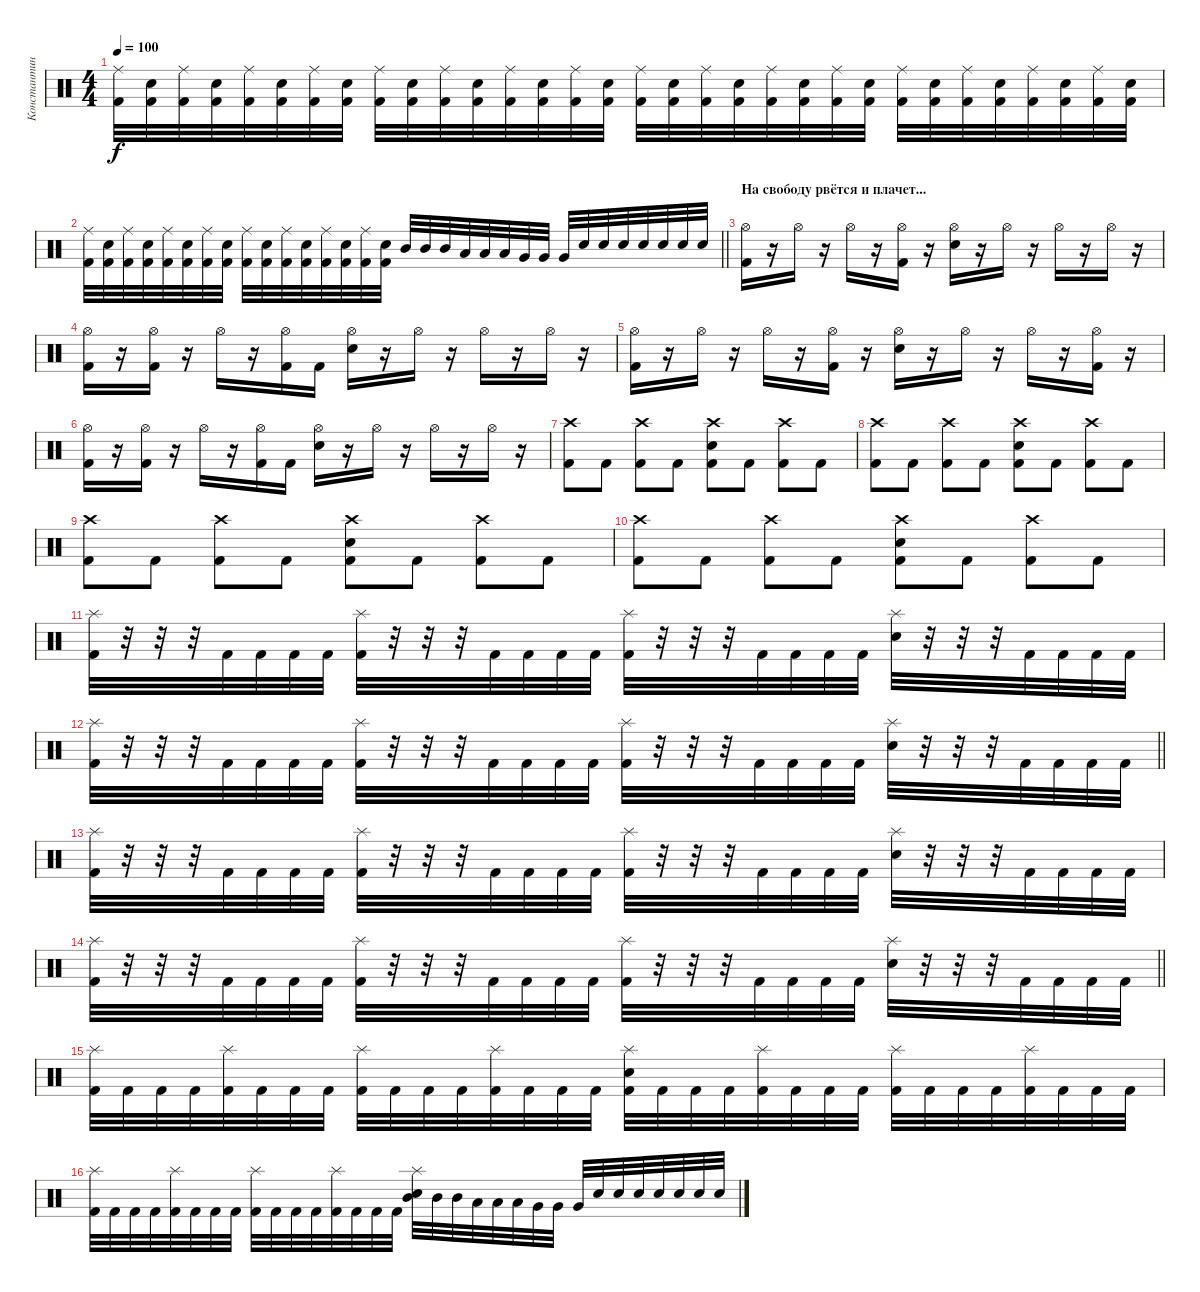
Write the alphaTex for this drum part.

\track ("Константин \"Салян\" Сальников" "Константин") {instrument percussion}
\staff {score}
\articulation defaults
\ts (4 4)
\tempo 100
\clef neutral
\ks c
("Ride (middle)" "Kick (hit) 2").32{dy f} ("Electric Snare (hit)" "Kick (hit) 2").32 ("Ride (middle)" "Kick (hit) 2").32 ("Electric Snare (hit)" "Kick (hit) 2").32 ("Ride (middle)" "Kick (hit) 2").32 ("Electric Snare (hit)" "Kick (hit) 2").32 ("Ride (middle)" "Kick (hit) 2").32 ("Electric Snare (hit)" "Kick (hit) 2").32 ("Ride (middle)" "Kick (hit) 2").32 ("Electric Snare (hit)" "Kick (hit) 2").32 ("Ride (middle)" "Kick (hit) 2").32 ("Electric Snare (hit)" "Kick (hit) 2").32 ("Ride (middle)" "Kick (hit) 2").32 ("Electric Snare (hit)" "Kick (hit) 2").32 ("Ride (middle)" "Kick (hit) 2").32 ("Electric Snare (hit)" "Kick (hit) 2").32 ("Ride (middle)" "Kick (hit) 2").32 ("Electric Snare (hit)" "Kick (hit) 2").32 ("Ride (middle)" "Kick (hit) 2").32 ("Electric Snare (hit)" "Kick (hit) 2").32 ("Ride (middle)" "Kick (hit) 2").32 ("Electric Snare (hit)" "Kick (hit) 2").32 ("Ride (middle)" "Kick (hit) 2").32 ("Electric Snare (hit)" "Kick (hit) 2").32 ("Ride (middle)" "Kick (hit) 2").32 ("Electric Snare (hit)" "Kick (hit) 2").32 ("Ride (middle)" "Kick (hit) 2").32 ("Electric Snare (hit)" "Kick (hit) 2").32 ("Ride (middle)" "Kick (hit) 2").32 ("Electric Snare (hit)" "Kick (hit) 2").32 ("Ride (middle)" "Kick (hit) 2").32 ("Electric Snare (hit)" "Kick (hit) 2").32 |
\barLineRight lightlight
("Ride (middle)" "Kick (hit) 2").32 ("Electric Snare (hit)" "Kick (hit) 2").32 ("Ride (middle)" "Kick (hit) 2").32 ("Electric Snare (hit)" "Kick (hit) 2").32 ("Ride (middle)" "Kick (hit) 2").32 ("Electric Snare (hit)" "Kick (hit) 2").32 ("Ride (middle)" "Kick (hit) 2").32 ("Electric Snare (hit)" "Kick (hit) 2").32 ("Ride (middle)" "Kick (hit) 2").32 ("Electric Snare (hit)" "Kick (hit) 2").32 ("Ride (middle)" "Kick (hit) 2").32 ("Electric Snare (hit)" "Kick (hit) 2").32 ("Ride (middle)" "Kick (hit) 2").32 ("Electric Snare (hit)" "Kick (hit) 2").32 ("Ride (middle)" "Kick (hit) 2").32 ("Electric Snare (hit)" "Kick (hit) 2").32 "Mid Tom (hit)".32 "Mid Tom (hit)".32 "Mid Tom (hit)".32 "Low Tom (hit)".32 "Low Tom (hit)".32 "Low Tom (hit)".32 "Very Low Tom (hit)".32 "Very Low Tom (hit)".32 "Very Low Tom (hit)".32 "Electric Snare (hit)".32 "Electric Snare (hit)".32 "Electric Snare (hit)".32 "Electric Snare (hit)".32 "Electric Snare (hit)".32 "Electric Snare (hit)".32 "Electric Snare (hit)".32 |
\section ("" "На свободу рвётся и плачет...")
("Hi-Hat (open)" "Kick (hit) 2").16 r.16 "Hi-Hat (open)".16 r.16 "Hi-Hat (open)".16 r.16 ("Hi-Hat (open)" "Kick (hit) 2").16 r.16 ("Hi-Hat (open)" "Electric Snare (hit)").16 r.16 "Hi-Hat (open)".16 r.16 "Hi-Hat (open)".16 r.16 "Hi-Hat (open)".16 r.16 |
("Hi-Hat (open)" "Kick (hit) 2").16 r.16 ("Hi-Hat (open)" "Kick (hit) 2").16 r.16 "Hi-Hat (open)".16 r.16 ("Hi-Hat (open)" "Kick (hit) 2").16 "Kick (hit) 2".16 ("Hi-Hat (open)" "Electric Snare (hit)").16 r.16 "Hi-Hat (open)".16 r.16 "Hi-Hat (open)".16 r.16 "Hi-Hat (open)".16 r.16 |
("Hi-Hat (open)" "Kick (hit) 2").16 r.16 "Hi-Hat (open)".16 r.16 "Hi-Hat (open)".16 r.16 ("Hi-Hat (open)" "Kick (hit) 2").16 r.16 ("Hi-Hat (open)" "Electric Snare (hit)").16 r.16 "Hi-Hat (open)".16 r.16 "Hi-Hat (open)".16 r.16 ("Hi-Hat (open)" "Kick (hit) 2").16 r.16 |
("Hi-Hat (open)" "Kick (hit) 2").16 r.16 ("Hi-Hat (open)" "Kick (hit) 2").16 r.16 "Hi-Hat (open)".16 r.16 ("Hi-Hat (open)" "Kick (hit) 2").16 "Kick (hit) 2".16 ("Hi-Hat (open)" "Electric Snare (hit)").16 r.16 "Hi-Hat (open)".16 r.16 "Hi-Hat (open)".16 r.16 "Hi-Hat (open)".16 r.16 |
("Crash high (hit)" "Kick (hit) 2").8 "Kick (hit) 2".8 ("Crash high (hit)" "Kick (hit) 2").8 "Kick (hit) 2".8 ("Crash high (hit)" "Kick (hit) 2" "Electric Snare (hit)").8 "Kick (hit) 2".8 ("Crash high (hit)" "Kick (hit) 2").8 "Kick (hit) 2".8 |
("Crash high (hit)" "Kick (hit) 2").8 "Kick (hit) 2".8 ("Crash high (hit)" "Kick (hit) 2").8 "Kick (hit) 2".8 ("Crash high (hit)" "Kick (hit) 2" "Electric Snare (hit)").8 "Kick (hit) 2".8 ("Crash high (hit)" "Kick (hit) 2").8 "Kick (hit) 2".8 |
("Crash high (hit)" "Kick (hit) 2").8 "Kick (hit) 2".8 ("Crash high (hit)" "Kick (hit) 2").8 "Kick (hit) 2".8 ("Crash high (hit)" "Kick (hit) 2" "Electric Snare (hit)").8 "Kick (hit) 2".8 ("Crash high (hit)" "Kick (hit) 2").8 "Kick (hit) 2".8 |
("Crash high (hit)" "Kick (hit) 2").8 "Kick (hit) 2".8 ("Crash high (hit)" "Kick (hit) 2").8 "Kick (hit) 2".8 ("Crash high (hit)" "Kick (hit) 2" "Electric Snare (hit)").8 "Kick (hit) 2".8 ("Crash high (hit)" "Kick (hit) 2").8 "Kick (hit) 2".8 |
("Splash (hit)" "Kick (hit) 2").32 r.32 r.32 r.32 "Kick (hit) 2".32 "Kick (hit) 2".32 "Kick (hit) 2".32 "Kick (hit) 2".32 ("Splash (hit)" "Kick (hit) 2").32 r.32 r.32 r.32 "Kick (hit) 2".32 "Kick (hit) 2".32 "Kick (hit) 2".32 "Kick (hit) 2".32 ("Splash (hit)" "Kick (hit) 2").32 r.32 r.32 r.32 "Kick (hit) 2".32 "Kick (hit) 2".32 "Kick (hit) 2".32 "Kick (hit) 2".32 ("Splash (hit)" "Electric Snare (hit)").32 r.32 r.32 r.32 "Kick (hit) 2".32 "Kick (hit) 2".32 "Kick (hit) 2".32 "Kick (hit) 2".32 |
\barLineRight lightlight
("Splash (hit)" "Kick (hit) 2").32 r.32 r.32 r.32 "Kick (hit) 2".32 "Kick (hit) 2".32 "Kick (hit) 2".32 "Kick (hit) 2".32 ("Splash (hit)" "Kick (hit) 2").32 r.32 r.32 r.32 "Kick (hit) 2".32 "Kick (hit) 2".32 "Kick (hit) 2".32 "Kick (hit) 2".32 ("Splash (hit)" "Kick (hit) 2").32 r.32 r.32 r.32 "Kick (hit) 2".32 "Kick (hit) 2".32 "Kick (hit) 2".32 "Kick (hit) 2".32 ("Splash (hit)" "Electric Snare (hit)").32 r.32 r.32 r.32 "Kick (hit) 2".32 "Kick (hit) 2".32 "Kick (hit) 2".32 "Kick (hit) 2".32 |
("Splash (hit)" "Kick (hit) 2").32 r.32 r.32 r.32 "Kick (hit) 2".32 "Kick (hit) 2".32 "Kick (hit) 2".32 "Kick (hit) 2".32 ("Splash (hit)" "Kick (hit) 2").32 r.32 r.32 r.32 "Kick (hit) 2".32 "Kick (hit) 2".32 "Kick (hit) 2".32 "Kick (hit) 2".32 ("Splash (hit)" "Kick (hit) 2").32 r.32 r.32 r.32 "Kick (hit) 2".32 "Kick (hit) 2".32 "Kick (hit) 2".32 "Kick (hit) 2".32 ("Splash (hit)" "Electric Snare (hit)").32 r.32 r.32 r.32 "Kick (hit) 2".32 "Kick (hit) 2".32 "Kick (hit) 2".32 "Kick (hit) 2".32 |
\barLineRight lightlight
("Splash (hit)" "Kick (hit) 2").32 r.32 r.32 r.32 "Kick (hit) 2".32 "Kick (hit) 2".32 "Kick (hit) 2".32 "Kick (hit) 2".32 ("Splash (hit)" "Kick (hit) 2").32 r.32 r.32 r.32 "Kick (hit) 2".32 "Kick (hit) 2".32 "Kick (hit) 2".32 "Kick (hit) 2".32 ("Splash (hit)" "Kick (hit) 2").32 r.32 r.32 r.32 "Kick (hit) 2".32 "Kick (hit) 2".32 "Kick (hit) 2".32 "Kick (hit) 2".32 ("Splash (hit)" "Electric Snare (hit)").32 r.32 r.32 r.32 "Kick (hit) 2".32 "Kick (hit) 2".32 "Kick (hit) 2".32 "Kick (hit) 2".32 |
("Splash (hit)" "Kick (hit) 2").32 "Kick (hit) 2".32 "Kick (hit) 2".32 "Kick (hit) 2".32 ("Splash (hit)" "Kick (hit) 2").32 "Kick (hit) 2".32 "Kick (hit) 2".32 "Kick (hit) 2".32 ("Splash (hit)" "Kick (hit) 2").32 "Kick (hit) 2".32 "Kick (hit) 2".32 "Kick (hit) 2".32 ("Splash (hit)" "Kick (hit) 2").32 "Kick (hit) 2".32 "Kick (hit) 2".32 "Kick (hit) 2".32 ("Splash (hit)" "Kick (hit) 2" "Electric Snare (hit)").32 "Kick (hit) 2".32 "Kick (hit) 2".32 "Kick (hit) 2".32 ("Splash (hit)" "Kick (hit) 2").32 "Kick (hit) 2".32 "Kick (hit) 2".32 "Kick (hit) 2".32 ("Splash (hit)" "Kick (hit) 2").32 "Kick (hit) 2".32 "Kick (hit) 2".32 "Kick (hit) 2".32 ("Splash (hit)" "Kick (hit) 2").32 "Kick (hit) 2".32 "Kick (hit) 2".32 "Kick (hit) 2".32 |
("Splash (hit)" "Kick (hit) 2").32 "Kick (hit) 2".32 "Kick (hit) 2".32 "Kick (hit) 2".32 ("Splash (hit)" "Kick (hit) 2").32 "Kick (hit) 2".32 "Kick (hit) 2".32 "Kick (hit) 2".32 ("Splash (hit)" "Kick (hit) 2").32 "Kick (hit) 2".32 "Kick (hit) 2".32 "Kick (hit) 2".32 ("Splash (hit)" "Kick (hit) 2").32 "Kick (hit) 2".32 "Kick (hit) 2".32 "Kick (hit) 2".32 ("Splash (hit)" "Mid Tom (hit)" "Electric Snare (hit)").32 "Mid Tom (hit)".32 "Mid Tom (hit)".32 "Low Tom (hit)".32 "Low Tom (hit)".32 "Low Tom (hit)".32 "Very Low Tom (hit)".32 "Very Low Tom (hit)".32 "Very Low Tom (hit)".32 "Electric Snare (hit)".32 "Electric Snare (hit)".32 "Electric Snare (hit)".32 "Electric Snare (hit)".32 "Electric Snare (hit)".32 "Electric Snare (hit)".32 "Electric Snare (hit)".32
